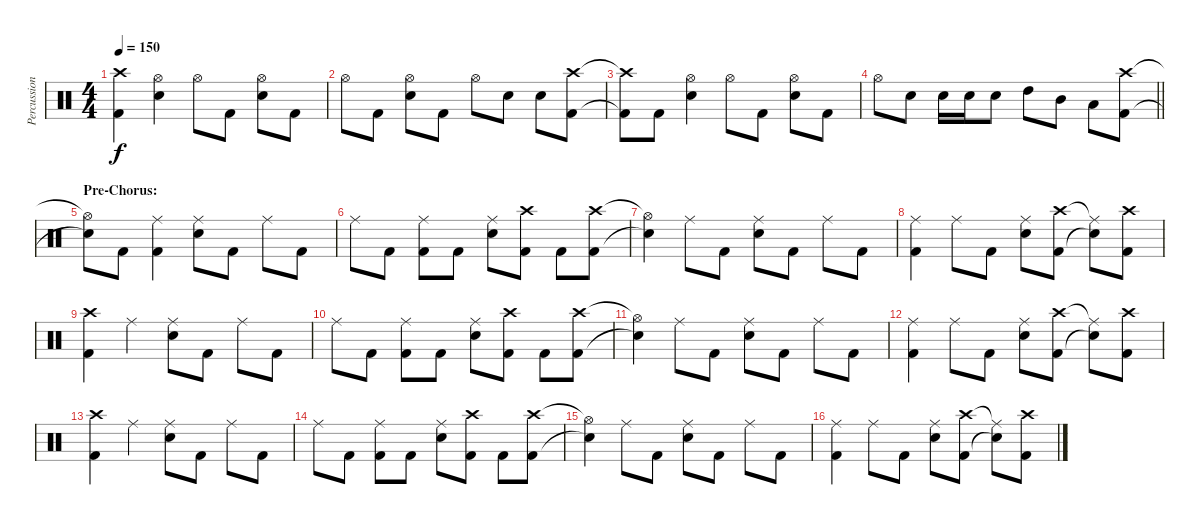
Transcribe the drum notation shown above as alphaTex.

\track ("Percussion" "Percussion") {instrument percussion}
\staff {score}
\articulation defaults
\ts (4 4)
\tempo 150
\clef neutral
\ks c
("Crash high (hit)" "Kick (hit) 2").4{dy f} ("Hi-Hat (open)" "Snare (hit) 2").4 "Hi-Hat (open)".8 "Kick (hit) 2".8 ("Hi-Hat (open)" "Snare (hit) 2").8 "Kick (hit) 2".8 |
"Hi-Hat (open)".8 "Kick (hit) 2".8 ("Hi-Hat (open)" "Snare (hit) 2").8 "Kick (hit) 2".8 "Hi-Hat (open)".8 "Snare (hit) 2".8 "Snare (hit) 2".8 ("Crash high (hit)" "Kick (hit) 2").8 |
("Crash high (hit)"{t} "Kick (hit) 2"{t}).8 "Kick (hit) 2".8 ("Hi-Hat (open)" "Snare (hit) 2").4 "Hi-Hat (open)".8 "Kick (hit) 2".8 ("Hi-Hat (open)" "Snare (hit) 2").8 "Kick (hit) 2".8 |
\barLineRight lightlight "Hi-Hat (open)".8 "Snare (hit) 2".8 "Snare (hit) 2".16 "Snare (hit) 2".16 "Snare (hit) 2".8 "High Tom (hit)".8 "Mid Tom (hit)".8 "Low Tom (hit)".8
("Crash high (hit)" "Kick (hit) 2").8 |
\section ("" "Pre-Chorus:")
("Hi-Hat (open)"{t} "Snare (hit)"{t}).8 "Kick (hit) 2".8 ("Ride (middle)" "Kick (hit) 2").4 ("Ride (middle)" "Snare (hit) 2").8 "Kick (hit) 2".8 "Ride (middle)".8 "Kick (hit) 2".8 |
"Ride (middle)".8 "Kick (hit) 2".8 ("Ride (middle)" "Kick (hit) 2").8 "Kick (hit) 2".8 ("Ride (middle)" "Snare (hit) 2").8 ("Crash high (hit)" "Kick (hit) 2").8 "Kick (hit) 2".8 ("Crash high (hit)" "Kick (hit) 2").8 |
("Hi-Hat (open)"{t} "Snare (hit)"{t}).4 "Ride (middle)".8 "Kick (hit) 2".8 ("Ride (middle)" "Snare (hit) 2").8 "Kick (hit) 2".8 "Ride (middle)".8 "Kick (hit) 2".8 |
("Ride (middle)" "Kick (hit) 2").4 "Ride (middle)".8 "Kick (hit) 2".8 ("Ride (middle)" "Snare (hit) 2").8 ("Crash high (hit)" "Kick (hit) 2").8 ("Ride (middle)"{t} "Snare (hit) 2"{t}).8 ("Crash high (hit)" "Kick (hit) 2").8 |
("Crash high (hit)" "Kick (hit) 2").4 "Ride (middle)".4 ("Ride (middle)" "Snare (hit) 2").8 "Kick (hit) 2".8 "Ride (middle)".8 "Kick (hit) 2".8 |
"Ride (middle)".8 "Kick (hit) 2".8 ("Ride (middle)" "Kick (hit) 2").8 "Kick (hit) 2".8 ("Ride (middle)" "Snare (hit) 2").8 ("Crash high (hit)" "Kick (hit) 2").8 "Kick (hit) 2".8 ("Crash high (hit)" "Kick (hit) 2").8 |
("Hi-Hat (open)"{t} "Snare (hit)"{t}).4 "Ride (middle)".8 "Kick (hit) 2".8 ("Ride (middle)" "Snare (hit) 2").8 "Kick (hit) 2".8 "Ride (middle)".8 "Kick (hit) 2".8 |
("Ride (middle)" "Kick (hit) 2").4 "Ride (middle)".8 "Kick (hit) 2".8 ("Ride (middle)" "Snare (hit) 2").8 ("Crash high (hit)" "Kick (hit) 2").8 ("Ride (middle)"{t} "Snare (hit) 2"{t}).8 ("Crash high (hit)" "Kick (hit) 2").8 |
("Crash high (hit)" "Kick (hit) 2").4 "Ride (middle)".4 ("Ride (middle)" "Snare (hit) 2").8 "Kick (hit) 2".8 "Ride (middle)".8 "Kick (hit) 2".8 |
"Ride (middle)".8 "Kick (hit) 2".8 ("Ride (middle)" "Kick (hit) 2").8 "Kick (hit) 2".8 ("Ride (middle)" "Snare (hit) 2").8 ("Crash high (hit)" "Kick (hit) 2").8 "Kick (hit) 2".8 ("Crash high (hit)" "Kick (hit) 2").8 |
("Hi-Hat (open)"{t} "Snare (hit)"{t}).4 "Ride (middle)".8 "Kick (hit) 2".8 ("Ride (middle)" "Snare (hit) 2").8 "Kick (hit) 2".8 "Ride (middle)".8 "Kick (hit) 2".8 |
("Ride (middle)" "Kick (hit) 2").4 "Ride (middle)".8 "Kick (hit) 2".8 ("Ride (middle)" "Snare (hit) 2").8 ("Crash high (hit)" "Kick (hit) 2").8 ("Ride (middle)"{t} "Snare (hit) 2"{t}).8 ("Crash high (hit)" "Kick (hit) 2").8
